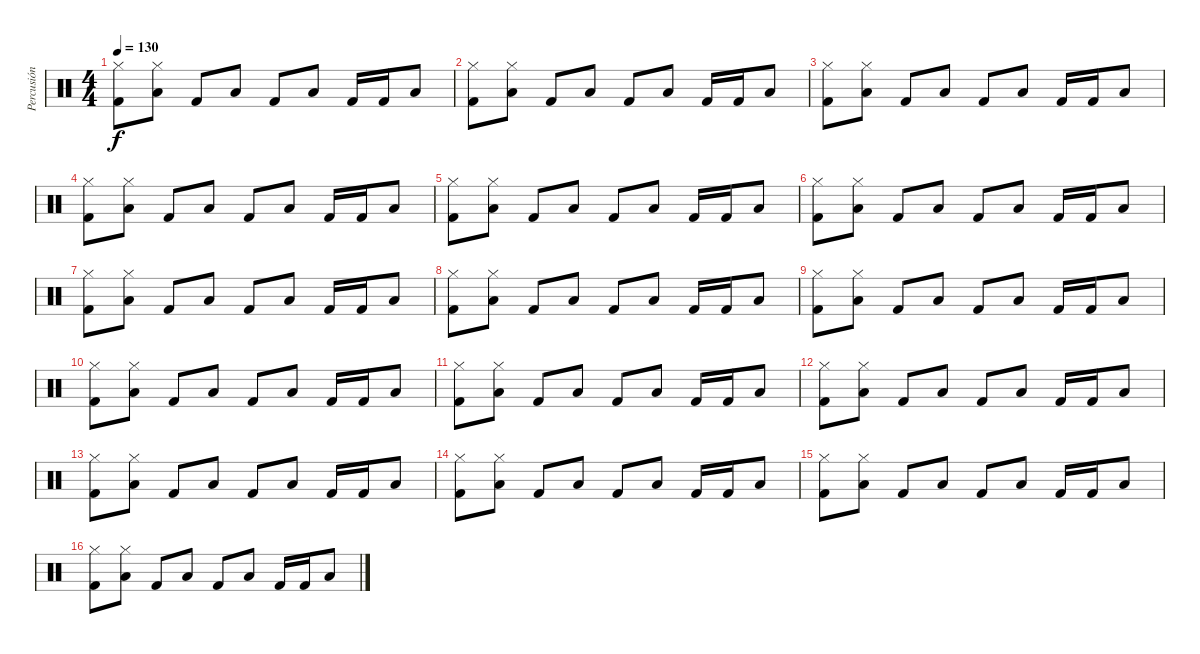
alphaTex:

\track ("Percusión" "Percusión") {instrument percussion}
\staff {score}
\articulation defaults
\ts (4 4)
\tempo 130
\clef neutral
\ks c
("Hi-Hat (closed)" "Kick (hit) 2").8{dy f} ("Hi-Hat (closed)" "Low Tom (hit)").8 "Kick (hit) 2".8 "Low Tom (hit)".8 "Kick (hit) 2".8 "Low Tom (hit)".8 "Kick (hit) 2".16 "Kick (hit) 2".16 "Low Tom (hit)".8 |
("Hi-Hat (closed)" "Kick (hit) 2").8 ("Hi-Hat (closed)" "Low Tom (hit)").8 "Kick (hit) 2".8 "Low Tom (hit)".8 "Kick (hit) 2".8 "Low Tom (hit)".8 "Kick (hit) 2".16 "Kick (hit) 2".16 "Low Tom (hit)".8 |
("Hi-Hat (closed)" "Kick (hit) 2").8 ("Hi-Hat (closed)" "Low Tom (hit)").8 "Kick (hit) 2".8 "Low Tom (hit)".8 "Kick (hit) 2".8 "Low Tom (hit)".8 "Kick (hit) 2".16 "Kick (hit) 2".16 "Low Tom (hit)".8 |
("Hi-Hat (closed)" "Kick (hit) 2").8 ("Hi-Hat (closed)" "Low Tom (hit)").8 "Kick (hit) 2".8 "Low Tom (hit)".8 "Kick (hit) 2".8 "Low Tom (hit)".8 "Kick (hit) 2".16 "Kick (hit) 2".16 "Low Tom (hit)".8 |
("Hi-Hat (closed)" "Kick (hit) 2").8 ("Hi-Hat (closed)" "Low Tom (hit)").8 "Kick (hit) 2".8 "Low Tom (hit)".8 "Kick (hit) 2".8 "Low Tom (hit)".8 "Kick (hit) 2".16 "Kick (hit) 2".16 "Low Tom (hit)".8 |
("Hi-Hat (closed)" "Kick (hit) 2").8 ("Hi-Hat (closed)" "Low Tom (hit)").8 "Kick (hit) 2".8 "Low Tom (hit)".8 "Kick (hit) 2".8 "Low Tom (hit)".8 "Kick (hit) 2".16 "Kick (hit) 2".16 "Low Tom (hit)".8 |
("Hi-Hat (closed)" "Kick (hit) 2").8 ("Hi-Hat (closed)" "Low Tom (hit)").8 "Kick (hit) 2".8 "Low Tom (hit)".8 "Kick (hit) 2".8 "Low Tom (hit)".8 "Kick (hit) 2".16 "Kick (hit) 2".16 "Low Tom (hit)".8 |
("Hi-Hat (closed)" "Kick (hit) 2").8 ("Hi-Hat (closed)" "Low Tom (hit)").8 "Kick (hit) 2".8 "Low Tom (hit)".8 "Kick (hit) 2".8 "Low Tom (hit)".8 "Kick (hit) 2".16 "Kick (hit) 2".16 "Low Tom (hit)".8 |
("Hi-Hat (closed)" "Kick (hit) 2").8 ("Hi-Hat (closed)" "Low Tom (hit)").8 "Kick (hit) 2".8 "Low Tom (hit)".8 "Kick (hit) 2".8 "Low Tom (hit)".8 "Kick (hit) 2".16 "Kick (hit) 2".16 "Low Tom (hit)".8 |
("Hi-Hat (closed)" "Kick (hit) 2").8 ("Hi-Hat (closed)" "Low Tom (hit)").8 "Kick (hit) 2".8 "Low Tom (hit)".8 "Kick (hit) 2".8 "Low Tom (hit)".8 "Kick (hit) 2".16 "Kick (hit) 2".16 "Low Tom (hit)".8 |
("Hi-Hat (closed)" "Kick (hit) 2").8 ("Hi-Hat (closed)" "Low Tom (hit)").8 "Kick (hit) 2".8 "Low Tom (hit)".8 "Kick (hit) 2".8 "Low Tom (hit)".8 "Kick (hit) 2".16 "Kick (hit) 2".16 "Low Tom (hit)".8 |
("Hi-Hat (closed)" "Kick (hit) 2").8 ("Hi-Hat (closed)" "Low Tom (hit)").8 "Kick (hit) 2".8 "Low Tom (hit)".8 "Kick (hit) 2".8 "Low Tom (hit)".8 "Kick (hit) 2".16 "Kick (hit) 2".16 "Low Tom (hit)".8 |
("Hi-Hat (closed)" "Kick (hit) 2").8 ("Hi-Hat (closed)" "Low Tom (hit)").8 "Kick (hit) 2".8 "Low Tom (hit)".8 "Kick (hit) 2".8 "Low Tom (hit)".8 "Kick (hit) 2".16 "Kick (hit) 2".16 "Low Tom (hit)".8 |
("Hi-Hat (closed)" "Kick (hit) 2").8 ("Hi-Hat (closed)" "Low Tom (hit)").8 "Kick (hit) 2".8 "Low Tom (hit)".8 "Kick (hit) 2".8 "Low Tom (hit)".8 "Kick (hit) 2".16 "Kick (hit) 2".16 "Low Tom (hit)".8 |
("Hi-Hat (closed)" "Kick (hit) 2").8 ("Hi-Hat (closed)" "Low Tom (hit)").8 "Kick (hit) 2".8 "Low Tom (hit)".8 "Kick (hit) 2".8 "Low Tom (hit)".8 "Kick (hit) 2".16 "Kick (hit) 2".16 "Low Tom (hit)".8 |
("Hi-Hat (closed)" "Kick (hit) 2").8 ("Hi-Hat (closed)" "Low Tom (hit)").8 "Kick (hit) 2".8 "Low Tom (hit)".8 "Kick (hit) 2".8 "Low Tom (hit)".8 "Kick (hit) 2".16 "Kick (hit) 2".16 "Low Tom (hit)".8
